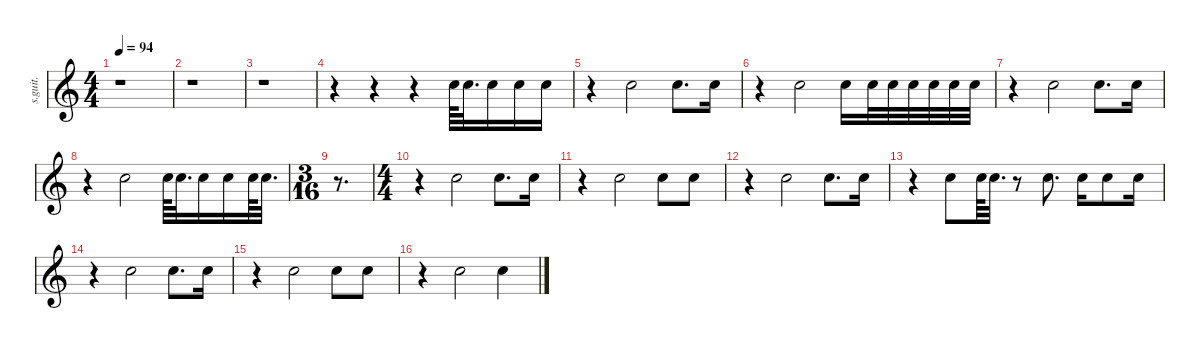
\defaultSystemsLayout 4
\hideDynamics
\bracketExtendMode nobrackets
\track ("David Silveria (Snare Effect)" "s.guit.") {instrument percussion}
\staff {score}
\articulation defaults
\ts (4 4)
\tempo 94
\clef g2
\ks c
r.1{dy f} |
r.1 |
r.1 |
r.4 r.4 r.4 "Hand Clap (hit)".64 "Hand Clap (hit)".32{d} "Hand Clap (hit)".16 "Hand Clap (hit)".16 "Hand Clap (hit)".16 |
r.4 "Hand Clap (hit)".2 "Hand Clap (hit)".8{d} "Hand Clap (hit)".16 |
r.4 "Hand Clap (hit)".2 "Hand Clap (hit)".16 "Hand Clap (hit)".32 "Hand Clap (hit)".32 "Hand Clap (hit)".32 "Hand Clap (hit)".32 "Hand Clap (hit)".32 "Hand Clap (hit)".32 |
r.4 "Hand Clap (hit)".2 "Hand Clap (hit)".8{d} "Hand Clap (hit)".16 |
r.4 "Hand Clap (hit)".2 "Hand Clap (hit)".64 "Hand Clap (hit)".32{d} "Hand Clap (hit)".16 "Hand Clap (hit)".16 "Hand Clap (hit)".64 "Hand Clap (hit)".32{d} |
\ts (3 16)
\beaming (8 2 2 2 2)
r.8{d} |
\ts (4 4)
\beaming (8 2 2 2 2)
r.4 "Hand Clap (hit)".2 "Hand Clap (hit)".8{d} "Hand Clap (hit)".16 |
r.4 "Hand Clap (hit)".2 "Hand Clap (hit)".8 "Hand Clap (hit)".8 |
r.4 "Hand Clap (hit)".2 "Hand Clap (hit)".8{d} "Hand Clap (hit)".16 |
r.4 "Hand Clap (hit)".8 "Hand Clap (hit)".64 "Hand Clap (hit)".32{d} r.8 "Hand Clap (hit)".8{d} "Hand Clap (hit)".16 "Hand Clap (hit)".8 "Hand Clap (hit)".16 |
r.4 "Hand Clap (hit)".2 "Hand Clap (hit)".8{d} "Hand Clap (hit)".16 |
r.4 "Hand Clap (hit)".2 "Hand Clap (hit)".8 "Hand Clap (hit)".8 |
r.4 "Hand Clap (hit)".2 "Hand Clap (hit)".4
